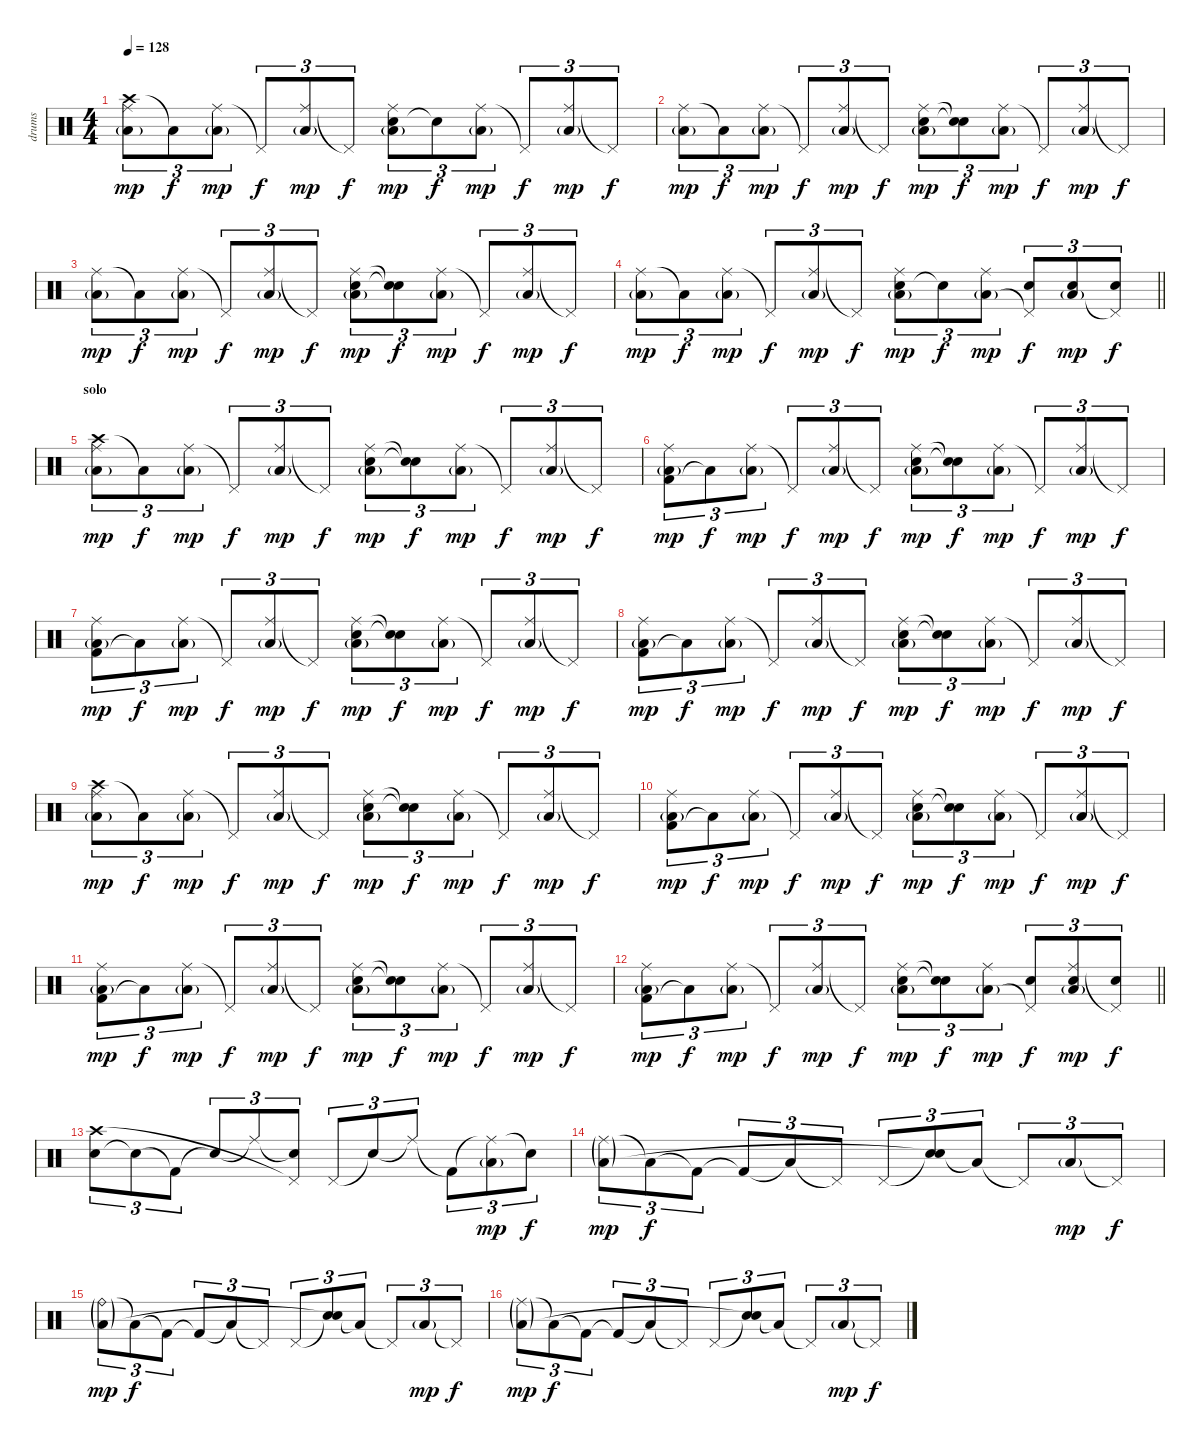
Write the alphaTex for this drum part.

\track ("drums" "drums") {instrument percussion}
\staff {score}
\articulation defaults
\ts (4 4)
\tempo 128
\clef neutral
\ks c
("Crash high (hit)" "Ride (middle)" "Low Floor Tom (hit)"{g}).8{tu (3 2) dy mp} "Low Floor Tom (hit)"{t}.8{tu (3 2) dy f} ("Ride (middle)" "Low Floor Tom (hit)"{g}).8{tu (3 2) dy mp} "Pedal Hi-Hat (hit)"{t}.8{tu (3 2) dy f} ("Ride (middle)" "Low Floor Tom (hit)"{g}).8{tu (3 2) dy mp} "Pedal Hi-Hat (hit)"{t}.8{tu (3 2) dy f} ("Electric Snare (hit)" "Ride (middle)" "Low Floor Tom (hit)"{g}).8{tu (3 2) dy mp} "Electric Snare (hit)"{t}.8{tu (3 2) dy f} ("Ride (middle)" "Low Floor Tom (hit)"{g}).8{tu (3 2) dy mp} "Pedal Hi-Hat (hit)"{t}.8{tu (3 2) dy f} ("Ride (middle)" "Low Floor Tom (hit)"{g}).8{tu (3 2) dy mp} "Pedal Hi-Hat (hit)"{t}.8{tu (3 2) dy f} |
("Ride (middle)" "Low Floor Tom (hit)"{g}).8{tu (3 2) dy mp} "Low Floor Tom (hit)"{t}.8{tu (3 2) dy f} ("Ride (middle)" "Low Floor Tom (hit)"{g}).8{tu (3 2) dy mp} "Pedal Hi-Hat (hit)"{t}.8{tu (3 2) dy f} ("Ride (middle)" "Low Floor Tom (hit)"{g}).8{tu (3 2) dy mp} "Pedal Hi-Hat (hit)"{t}.8{tu (3 2) dy f} ("Electric Snare (hit)" "Ride (middle)" "Low Floor Tom (hit)"{g}).8{tu (3 2) dy mp} ("Electric Snare (hit)"{t} "Snare (hit)"{t}).8{tu (3 2) dy f} ("Ride (middle)" "Low Floor Tom (hit)"{g}).8{tu (3 2) dy mp} "Pedal Hi-Hat (hit)"{t}.8{tu (3 2) dy f} ("Ride (middle)" "Low Floor Tom (hit)"{g}).8{tu (3 2) dy mp} "Pedal Hi-Hat (hit)"{t}.8{tu (3 2) dy f} |
("Ride (middle)" "Low Floor Tom (hit)"{g}).8{tu (3 2) dy mp} "Low Floor Tom (hit)"{t}.8{tu (3 2) dy f} ("Ride (middle)" "Low Floor Tom (hit)"{g}).8{tu (3 2) dy mp} "Pedal Hi-Hat (hit)"{t}.8{tu (3 2) dy f} ("Ride (middle)" "Low Floor Tom (hit)"{g}).8{tu (3 2) dy mp} "Pedal Hi-Hat (hit)"{t}.8{tu (3 2) dy f} ("Electric Snare (hit)" "Ride (middle)" "Low Floor Tom (hit)"{g}).8{tu (3 2) dy mp} ("Electric Snare (hit)"{t} "Snare (hit)"{t}).8{tu (3 2) dy f} ("Ride (middle)" "Low Floor Tom (hit)"{g}).8{tu (3 2) dy mp} "Pedal Hi-Hat (hit)"{t}.8{tu (3 2) dy f} ("Ride (middle)" "Low Floor Tom (hit)"{g}).8{tu (3 2) dy mp} "Pedal Hi-Hat (hit)"{t}.8{tu (3 2) dy f} |
\barLineRight lightlight
("Ride (middle)" "Low Floor Tom (hit)"{g}).8{tu (3 2) dy mp} "Low Floor Tom (hit)"{t}.8{tu (3 2) dy f} ("Ride (middle)" "Low Floor Tom (hit)"{g}).8{tu (3 2) dy mp} "Pedal Hi-Hat (hit)"{t}.8{tu (3 2) dy f} ("Ride (middle)" "Low Floor Tom (hit)"{g}).8{tu (3 2) dy mp} "Pedal Hi-Hat (hit)"{t}.8{tu (3 2) dy f} ("Electric Snare (hit)" "Ride (middle)" "Low Floor Tom (hit)"{g}).8{tu (3 2) dy mp} "Snare (hit)"{t}.8{tu (3 2) dy f} ("Ride (middle)" "Low Floor Tom (hit)"{g}).8{tu (3 2) dy mp} ("Electric Snare (hit)" "Pedal Hi-Hat (hit)"{t}).8{tu (3 2) dy f} ("Electric Snare (hit)" "Low Floor Tom (hit)"{g}).8{tu (3 2) dy mp} ("Electric Snare (hit)" "Pedal Hi-Hat (hit)"{t}).8{tu (3 2) dy f} |
\section ("" "solo")
("Crash high (hit)" "Ride (middle)" "Low Floor Tom (hit)"{g}).8{tu (3 2) dy mp} "Low Floor Tom (hit)"{t}.8{tu (3 2) dy f} ("Ride (middle)" "Low Floor Tom (hit)"{g}).8{tu (3 2) dy mp} "Pedal Hi-Hat (hit)"{t}.8{tu (3 2) dy f} ("Ride (middle)" "Low Floor Tom (hit)"{g}).8{tu (3 2) dy mp} "Pedal Hi-Hat (hit)"{t}.8{tu (3 2) dy f} ("Electric Snare (hit)" "Ride (middle)" "Low Floor Tom (hit)"{g}).8{tu (3 2) dy mp} ("Electric Snare (hit)"{t} "Snare (hit)"{t}).8{tu (3 2) dy f} ("Ride (middle)" "Low Floor Tom (hit)"{g}).8{tu (3 2) dy mp} "Pedal Hi-Hat (hit)"{t}.8{tu (3 2) dy f} ("Ride (middle)" "Low Floor Tom (hit)"{g}).8{tu (3 2) dy mp} "Pedal Hi-Hat (hit)"{t}.8{tu (3 2) dy f} |
("Kick (hit) 2" "Ride (middle)" "Low Floor Tom (hit)"{g}).8{tu (3 2) dy mp} "Low Floor Tom (hit)"{t}.8{tu (3 2) dy f} ("Ride (middle)" "Low Floor Tom (hit)"{g}).8{tu (3 2) dy mp} "Pedal Hi-Hat (hit)"{t}.8{tu (3 2) dy f} ("Ride (middle)" "Low Floor Tom (hit)"{g}).8{tu (3 2) dy mp} "Pedal Hi-Hat (hit)"{t}.8{tu (3 2) dy f} ("Electric Snare (hit)" "Ride (middle)" "Low Floor Tom (hit)"{g}).8{tu (3 2) dy mp} ("Electric Snare (hit)"{t} "Snare (hit)"{t}).8{tu (3 2) dy f} ("Ride (middle)" "Low Floor Tom (hit)"{g}).8{tu (3 2) dy mp} "Pedal Hi-Hat (hit)"{t}.8{tu (3 2) dy f} ("Ride (middle)" "Low Floor Tom (hit)"{g}).8{tu (3 2) dy mp} "Pedal Hi-Hat (hit)"{t}.8{tu (3 2) dy f} |
("Kick (hit) 2" "Ride (middle)" "Low Floor Tom (hit)"{g}).8{tu (3 2) dy mp} "Low Floor Tom (hit)"{t}.8{tu (3 2) dy f} ("Ride (middle)" "Low Floor Tom (hit)"{g}).8{tu (3 2) dy mp} "Pedal Hi-Hat (hit)"{t}.8{tu (3 2) dy f} ("Ride (middle)" "Low Floor Tom (hit)"{g}).8{tu (3 2) dy mp} "Pedal Hi-Hat (hit)"{t}.8{tu (3 2) dy f} ("Electric Snare (hit)" "Ride (middle)" "Low Floor Tom (hit)"{g}).8{tu (3 2) dy mp} ("Electric Snare (hit)"{t} "Snare (hit)"{t}).8{tu (3 2) dy f} ("Ride (middle)" "Low Floor Tom (hit)"{g}).8{tu (3 2) dy mp} "Pedal Hi-Hat (hit)"{t}.8{tu (3 2) dy f} ("Ride (middle)" "Low Floor Tom (hit)"{g}).8{tu (3 2) dy mp} "Pedal Hi-Hat (hit)"{t}.8{tu (3 2) dy f} |
("Kick (hit) 2" "Ride (middle)" "Low Floor Tom (hit)"{g}).8{tu (3 2) dy mp} "Low Floor Tom (hit)"{t}.8{tu (3 2) dy f} ("Ride (middle)" "Low Floor Tom (hit)"{g}).8{tu (3 2) dy mp} "Pedal Hi-Hat (hit)"{t}.8{tu (3 2) dy f} ("Ride (middle)" "Low Floor Tom (hit)"{g}).8{tu (3 2) dy mp} "Pedal Hi-Hat (hit)"{t}.8{tu (3 2) dy f} ("Electric Snare (hit)" "Ride (middle)" "Low Floor Tom (hit)"{g}).8{tu (3 2) dy mp} ("Electric Snare (hit)"{t} "Snare (hit)"{t}).8{tu (3 2) dy f} ("Ride (middle)" "Low Floor Tom (hit)"{g}).8{tu (3 2) dy mp} "Pedal Hi-Hat (hit)"{t}.8{tu (3 2) dy f} ("Ride (middle)" "Low Floor Tom (hit)"{g}).8{tu (3 2) dy mp} "Pedal Hi-Hat (hit)"{t}.8{tu (3 2) dy f} |
("Crash high (hit)" "Ride (middle)" "Low Floor Tom (hit)"{g}).8{tu (3 2) dy mp} "Low Floor Tom (hit)"{t}.8{tu (3 2) dy f} ("Ride (middle)" "Low Floor Tom (hit)"{g}).8{tu (3 2) dy mp} "Pedal Hi-Hat (hit)"{t}.8{tu (3 2) dy f} ("Ride (middle)" "Low Floor Tom (hit)"{g}).8{tu (3 2) dy mp} "Pedal Hi-Hat (hit)"{t}.8{tu (3 2) dy f} ("Electric Snare (hit)" "Ride (middle)" "Low Floor Tom (hit)"{g}).8{tu (3 2) dy mp} ("Electric Snare (hit)"{t} "Snare (hit)"{t}).8{tu (3 2) dy f} ("Ride (middle)" "Low Floor Tom (hit)"{g}).8{tu (3 2) dy mp} "Pedal Hi-Hat (hit)"{t}.8{tu (3 2) dy f} ("Ride (middle)" "Low Floor Tom (hit)"{g}).8{tu (3 2) dy mp} "Pedal Hi-Hat (hit)"{t}.8{tu (3 2) dy f} |
("Kick (hit) 2" "Ride (middle)" "Low Floor Tom (hit)"{g}).8{tu (3 2) dy mp} "Low Floor Tom (hit)"{t}.8{tu (3 2) dy f} ("Ride (middle)" "Low Floor Tom (hit)"{g}).8{tu (3 2) dy mp} "Pedal Hi-Hat (hit)"{t}.8{tu (3 2) dy f} ("Ride (middle)" "Low Floor Tom (hit)"{g}).8{tu (3 2) dy mp} "Pedal Hi-Hat (hit)"{t}.8{tu (3 2) dy f} ("Electric Snare (hit)" "Ride (middle)" "Low Floor Tom (hit)"{g}).8{tu (3 2) dy mp} ("Electric Snare (hit)"{t} "Snare (hit)"{t}).8{tu (3 2) dy f} ("Ride (middle)" "Low Floor Tom (hit)"{g}).8{tu (3 2) dy mp} "Pedal Hi-Hat (hit)"{t}.8{tu (3 2) dy f} ("Ride (middle)" "Low Floor Tom (hit)"{g}).8{tu (3 2) dy mp} "Pedal Hi-Hat (hit)"{t}.8{tu (3 2) dy f} |
("Kick (hit) 2" "Ride (middle)" "Low Floor Tom (hit)"{g}).8{tu (3 2) dy mp} "Low Floor Tom (hit)"{t}.8{tu (3 2) dy f} ("Ride (middle)" "Low Floor Tom (hit)"{g}).8{tu (3 2) dy mp} "Pedal Hi-Hat (hit)"{t}.8{tu (3 2) dy f} ("Ride (middle)" "Low Floor Tom (hit)"{g}).8{tu (3 2) dy mp} "Pedal Hi-Hat (hit)"{t}.8{tu (3 2) dy f} ("Electric Snare (hit)" "Ride (middle)" "Low Floor Tom (hit)"{g}).8{tu (3 2) dy mp} ("Electric Snare (hit)"{t} "Snare (hit)"{t}).8{tu (3 2) dy f} ("Ride (middle)" "Low Floor Tom (hit)"{g}).8{tu (3 2) dy mp} "Pedal Hi-Hat (hit)"{t}.8{tu (3 2) dy f} ("Ride (middle)" "Low Floor Tom (hit)"{g}).8{tu (3 2) dy mp} "Pedal Hi-Hat (hit)"{t}.8{tu (3 2) dy f} |
\barLineRight lightlight
("Kick (hit) 2" "Ride (middle)" "Low Floor Tom (hit)"{g}).8{tu (3 2) dy mp} "Low Floor Tom (hit)"{t}.8{tu (3 2) dy f} ("Ride (middle)" "Low Floor Tom (hit)"{g}).8{tu (3 2) dy mp} "Pedal Hi-Hat (hit)"{t}.8{tu (3 2) dy f} ("Ride (middle)" "Low Floor Tom (hit)"{g}).8{tu (3 2) dy mp} "Pedal Hi-Hat (hit)"{t}.8{tu (3 2) dy f} ("Electric Snare (hit)" "Ride (middle)" "Low Floor Tom (hit)"{g}).8{tu (3 2) dy mp} ("Electric Snare (hit)"{t} "Snare (hit)"{t}).8{tu (3 2) dy f} ("Ride (middle)" "Low Floor Tom (hit)"{g}).8{tu (3 2) dy mp} ("Electric Snare (hit)" "Pedal Hi-Hat (hit)"{t}).8{tu (3 2) dy f} ("Electric Snare (hit)" "Ride (middle)" "Low Floor Tom (hit)"{g}).8{tu (3 2) dy mp} ("Electric Snare (hit)" "Pedal Hi-Hat (hit)"{t}).8{tu (3 2) dy f} |
("Electric Snare (hit)" "Crash high (hit)").8{tu (3 2)} "Snare (hit)"{t}.8{tu (3 2)} "Kick (hit) 2"{t}.8{tu (3 2)} "Snare (hit)"{t}.8{tu (3 2)} "Ride (middle)"{t}.8{tu (3 2)} ("Snare (hit)"{t} "Pedal Hi-Hat (hit)"{t}).8{tu (3 2)} "Pedal Hi-Hat (hit)".8{tu (3 2)} "Snare (hit)"{t}.8{tu (3 2)} "Ride (middle)"{t}.8{tu (3 2)} "Kick (hit) 2"{t}.8{tu (3 2)} ("Ride (middle)"{t} "Low Floor Tom (hit)"{g}).8{tu (3 2) dy mp} "Snare (hit)"{t}.8{tu (3 2) dy f} |
("Ride (middle)"{g} "Low Floor Tom (hit)"{g}).8{tu (3 2) dy mp} "Low Floor Tom (hit)"{t}.8{tu (3 2) dy f} "Kick (hit) 2"{t}.8{tu (3 2)} "Kick (hit) 2"{t}.8{tu (3 2)} "Low Floor Tom (hit)"{t}.8{tu (3 2)} "Pedal Hi-Hat (hit)"{t}.8{tu (3 2)} "Pedal Hi-Hat (hit)".8{tu (3 2)} ("Electric Snare (hit)"{t} "Snare (hit)"{t}).8{tu (3 2)} "Low Floor Tom (hit)"{t}.8{tu (3 2)} "Pedal Hi-Hat (hit)"{t}.8{tu (3 2)} "Low Floor Tom (hit)"{g}.8{tu (3 2) dy mp} "Pedal Hi-Hat (hit)"{t}.8{tu (3 2) dy f} |
("Ride (bell)"{g} "Low Floor Tom (hit)"{g}).8{tu (3 2) dy mp} "Low Floor Tom (hit)"{t}.8{tu (3 2) dy f} "Kick (hit) 2"{t}.8{tu (3 2)} "Kick (hit) 2"{t}.8{tu (3 2)} "Low Floor Tom (hit)"{t}.8{tu (3 2)} "Pedal Hi-Hat (hit)"{t}.8{tu (3 2)} "Pedal Hi-Hat (hit)".8{tu (3 2)} ("Electric Snare (hit)"{t} "Snare (hit)"{t}).8{tu (3 2)} "Low Floor Tom (hit)"{t}.8{tu (3 2)} "Pedal Hi-Hat (hit)"{t}.8{tu (3 2)} "Low Floor Tom (hit)"{g}.8{tu (3 2) dy mp} "Pedal Hi-Hat (hit)"{t}.8{tu (3 2) dy f} |
("Ride (middle)"{g} "Low Floor Tom (hit)"{g}).8{tu (3 2) dy mp} "Low Floor Tom (hit)"{t}.8{tu (3 2) dy f} "Kick (hit) 2"{t}.8{tu (3 2)} "Kick (hit) 2"{t}.8{tu (3 2)} "Low Floor Tom (hit)"{t}.8{tu (3 2)} "Pedal Hi-Hat (hit)"{t}.8{tu (3 2)} "Pedal Hi-Hat (hit)".8{tu (3 2)} ("Electric Snare (hit)"{t} "Snare (hit)"{t}).8{tu (3 2)} "Low Floor Tom (hit)"{t}.8{tu (3 2)} "Pedal Hi-Hat (hit)"{t}.8{tu (3 2)} "Low Floor Tom (hit)"{g}.8{tu (3 2) dy mp} "Pedal Hi-Hat (hit)"{t}.8{tu (3 2) dy f}
